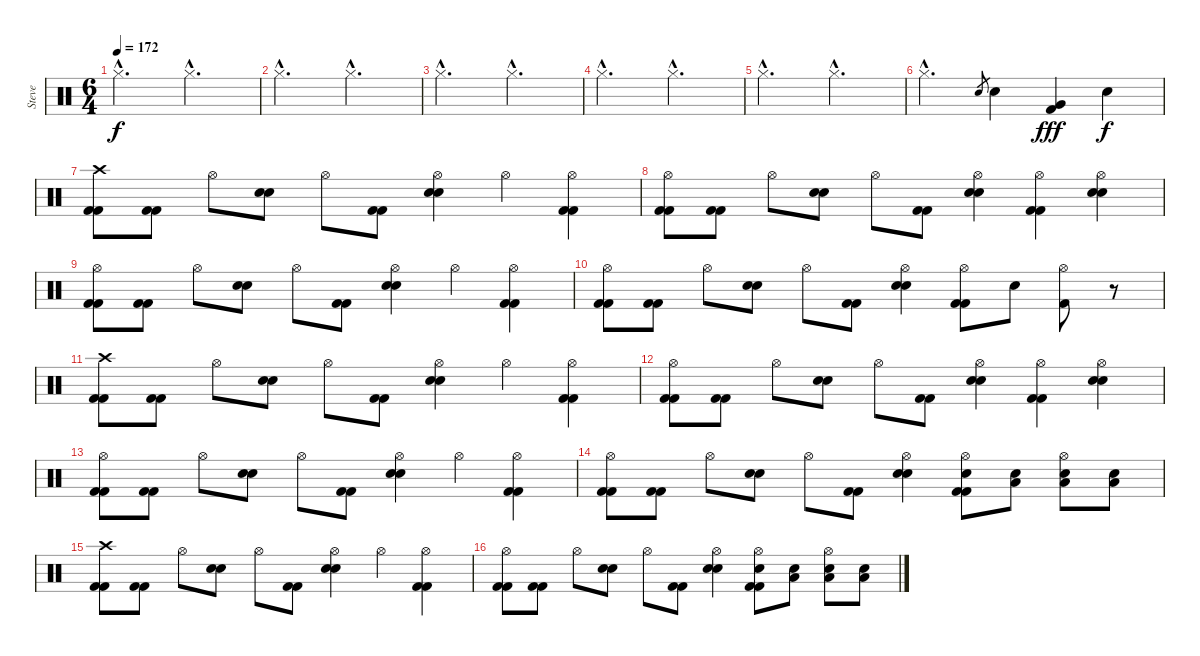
\track ("Steve" "Steve") {instrument percussion}
\staff {score}
\articulation defaults
\ts (6 4)
\tempo 172
\clef neutral
\ks c "Hi-Hat (closed)"{hac}.2{d dy f} "Hi-Hat (closed)"{hac}.2{d}
|
"Hi-Hat (closed)"{hac}.2{d} "Hi-Hat (closed)"{hac}.2{d} |
"Hi-Hat (closed)"{hac}.2{d} "Hi-Hat (closed)"{hac}.2{d} |
"Hi-Hat (closed)"{hac}.2{d} "Hi-Hat (closed)"{hac}.2{d} |
"Hi-Hat (closed)"{hac}.2{d} "Hi-Hat (closed)"{hac}.2{d} |
"Hi-Hat (closed)"{hac}.2{d} "Electric Snare (hit)".8{gr} "Electric Snare (hit)".4 ("Very Low Tom (hit)" "Kick (hit) 2").4{dy fff} "Electric Snare (hit)".4{dy f} |
("Crash high (hit)" "Kick (hit) 2" "Kick (hit) 2").8{volume 16} ("Kick (hit) 2" "Kick (hit) 2").8 "Hi-Hat (open)".8 ("Electric Snare (hit)" "Electric Snare (hit)").8 "Hi-Hat (open)".8 ("Kick (hit) 2" "Kick (hit) 2").8 ("Hi-Hat (open)" "Electric Snare (hit)" "Electric Snare (hit)").4 "Hi-Hat (open)".4 ("Hi-Hat (open)" "Kick (hit) 2" "Kick (hit) 2").4 |
("Hi-Hat (open)" "Kick (hit) 2" "Kick (hit) 2").8 ("Kick (hit) 2" "Kick (hit) 2").8 "Hi-Hat (open)".8 ("Electric Snare (hit)" "Electric Snare (hit)").8 "Hi-Hat (open)".8 ("Kick (hit) 2" "Kick (hit) 2").8 ("Hi-Hat (open)" "Electric Snare (hit)" "Electric Snare (hit)").4 ("Hi-Hat (open)" "Kick (hit) 2" "Kick (hit) 2").4 ("Hi-Hat (open)" "Electric Snare (hit)" "Electric Snare (hit)").4 |
("Hi-Hat (open)" "Kick (hit) 2" "Kick (hit) 2").8 ("Kick (hit) 2" "Kick (hit) 2").8 "Hi-Hat (open)".8 ("Electric Snare (hit)" "Electric Snare (hit)").8 "Hi-Hat (open)".8 ("Kick (hit) 2" "Kick (hit) 2").8 ("Hi-Hat (open)" "Electric Snare (hit)" "Electric Snare (hit)").4 "Hi-Hat (open)".4 ("Hi-Hat (open)" "Kick (hit) 2" "Kick (hit) 2").4 |
("Hi-Hat (open)" "Kick (hit) 2" "Kick (hit) 2").8 ("Kick (hit) 2" "Kick (hit) 2").8 "Hi-Hat (open)".8 ("Electric Snare (hit)" "Electric Snare (hit)").8 "Hi-Hat (open)".8 ("Kick (hit) 2" "Kick (hit) 2").8 ("Hi-Hat (open)" "Electric Snare (hit)" "Electric Snare (hit)").4 ("Hi-Hat (open)" "Kick (hit) 2" "Kick (hit) 2").8 "Electric Snare (hit)".8 ("Hi-Hat (open)" "Kick (hit) 2").8 r.8 |
("Crash high (hit)" "Kick (hit) 2" "Kick (hit) 2").8 ("Kick (hit) 2" "Kick (hit) 2").8 "Hi-Hat (open)".8 ("Electric Snare (hit)" "Electric Snare (hit)").8 "Hi-Hat (open)".8 ("Kick (hit) 2" "Kick (hit) 2").8 ("Hi-Hat (open)" "Electric Snare (hit)" "Electric Snare (hit)").4 "Hi-Hat (open)".4 ("Hi-Hat (open)" "Kick (hit) 2" "Kick (hit) 2").4 |
("Hi-Hat (open)" "Kick (hit) 2" "Kick (hit) 2").8 ("Kick (hit) 2" "Kick (hit) 2").8 "Hi-Hat (open)".8 ("Electric Snare (hit)" "Electric Snare (hit)").8 "Hi-Hat (open)".8 ("Kick (hit) 2" "Kick (hit) 2").8 ("Hi-Hat (open)" "Electric Snare (hit)" "Electric Snare (hit)").4 ("Hi-Hat (open)" "Kick (hit) 2" "Kick (hit) 2").4 ("Hi-Hat (open)" "Electric Snare (hit)" "Electric Snare (hit)").4 |
("Hi-Hat (open)" "Kick (hit) 2" "Kick (hit) 2").8 ("Kick (hit) 2" "Kick (hit) 2").8 "Hi-Hat (open)".8 ("Electric Snare (hit)" "Electric Snare (hit)").8 "Hi-Hat (open)".8 ("Kick (hit) 2" "Kick (hit) 2").8 ("Hi-Hat (open)" "Electric Snare (hit)" "Electric Snare (hit)").4 "Hi-Hat (open)".4 ("Hi-Hat (open)" "Kick (hit) 2" "Kick (hit) 2").4 |
("Hi-Hat (open)" "Kick (hit) 2" "Kick (hit) 2").8 ("Kick (hit) 2" "Kick (hit) 2").8 "Hi-Hat (open)".8 ("Electric Snare (hit)" "Electric Snare (hit)").8 "Hi-Hat (open)".8 ("Kick (hit) 2" "Kick (hit) 2").8 ("Hi-Hat (open)" "Electric Snare (hit)" "Electric Snare (hit)").4 ("Hi-Hat (open)" "Electric Snare (hit)" "Kick (hit) 2" "Kick (hit) 2").8 ("Electric Snare (hit)" "Low Tom (hit)").8 ("Hi-Hat (open)" "Electric Snare (hit)" "Low Tom (hit)").8 ("Electric Snare (hit)" "Low Tom (hit)").8 |
("Crash high (hit)" "Kick (hit) 2" "Kick (hit) 2").8{volume 16} ("Kick (hit) 2" "Kick (hit) 2").8 "Hi-Hat (open)".8 ("Electric Snare (hit)" "Electric Snare (hit)").8 "Hi-Hat (open)".8 ("Kick (hit) 2" "Kick (hit) 2").8 ("Hi-Hat (open)" "Electric Snare (hit)" "Electric Snare (hit)").4 "Hi-Hat (open)".4 ("Hi-Hat (open)" "Kick (hit) 2" "Kick (hit) 2").4 |
("Hi-Hat (open)" "Kick (hit) 2" "Kick (hit) 2").8 ("Kick (hit) 2" "Kick (hit) 2").8 "Hi-Hat (open)".8 ("Electric Snare (hit)" "Electric Snare (hit)").8 "Hi-Hat (open)".8 ("Kick (hit) 2" "Kick (hit) 2").8 ("Hi-Hat (open)" "Electric Snare (hit)" "Electric Snare (hit)").4 ("Hi-Hat (open)" "Electric Snare (hit)" "Kick (hit) 2" "Kick (hit) 2").8 ("Electric Snare (hit)" "Low Tom (hit)").8 ("Hi-Hat (open)" "Electric Snare (hit)" "Low Tom (hit)").8 ("Electric Snare (hit)" "Low Tom (hit)").8
